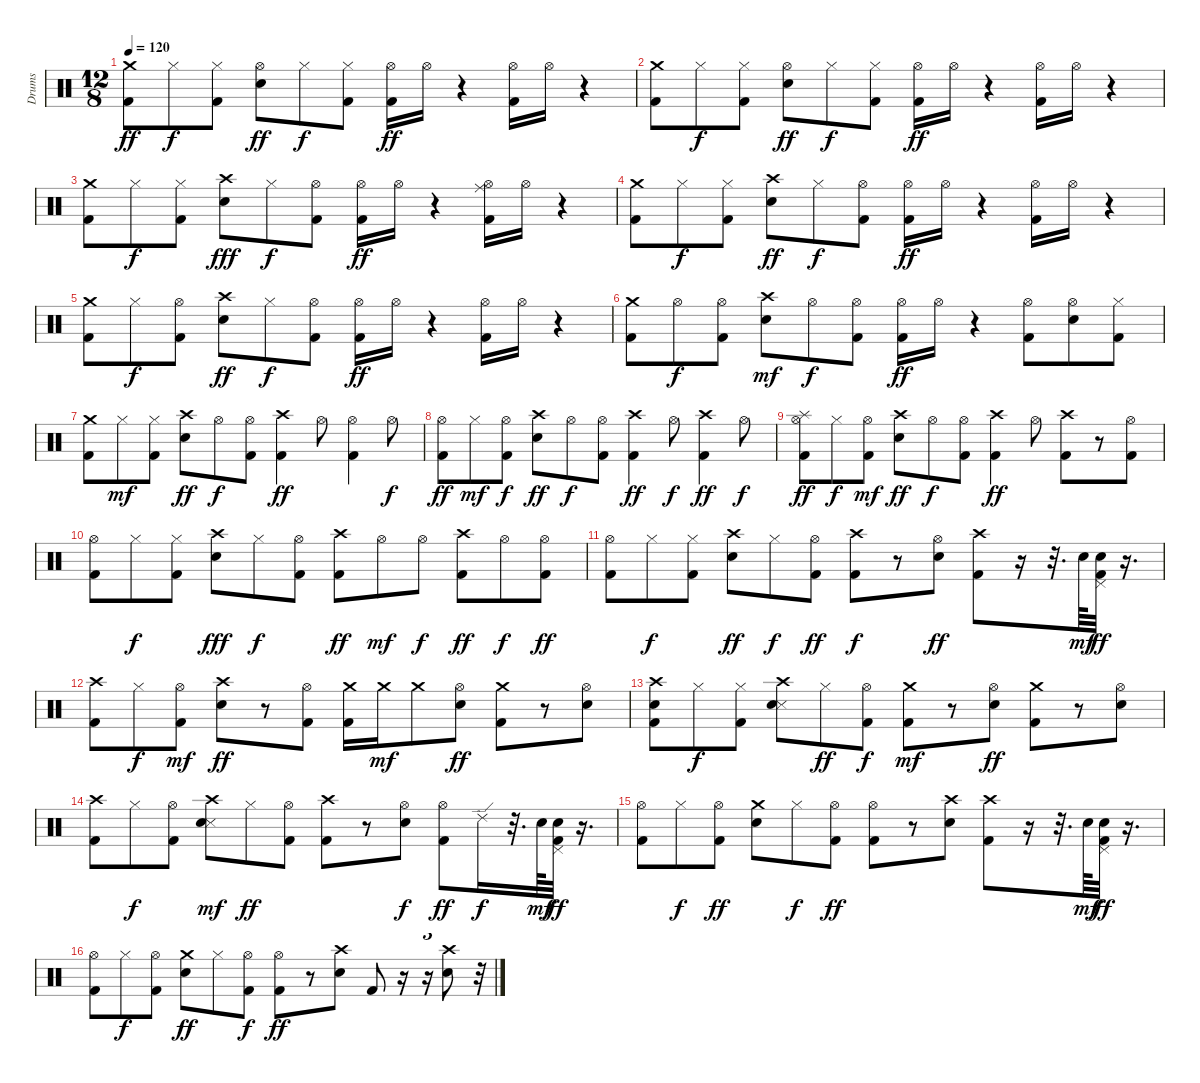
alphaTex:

\track ("Drums" "Drums") {instrument percussion}
\staff {score}
\articulation defaults
\ts (12 8)
\tempo 120
\clef neutral
\ks c
("Crash medium (hit)" "Kick (hit) 2").8{dy ff} "Hi-Hat (closed)".8{dy f} ("Hi-Hat (closed)" "Kick (hit) 2").8 ("Hi-Hat (open)" "Snare (hit) 2").8{dy ff} "Hi-Hat (closed)".8{dy f} ("Hi-Hat (closed)" "Kick (hit) 2").8 ("Hi-Hat (open)" "Kick (hit) 2").16{dy ff} "Hi-Hat (open)".16 r.4 ("Hi-Hat (open)" "Kick (hit) 2").16 "Hi-Hat (open)".16 r.4 |
("Crash medium (hit)" "Kick (hit) 2").8 "Hi-Hat (closed)".8{dy f} ("Hi-Hat (closed)" "Kick (hit) 2").8 ("Hi-Hat (open)" "Snare (hit) 2").8{dy ff} "Hi-Hat (closed)".8{dy f} ("Hi-Hat (closed)" "Kick (hit) 2").8 ("Hi-Hat (open)" "Kick (hit) 2").16{dy ff} "Hi-Hat (open)".16 r.4 ("Hi-Hat (open)" "Kick (hit) 2").16 "Hi-Hat (open)".16 r.4 |
("Crash medium (hit)" "Kick (hit) 2").8 "Hi-Hat (closed)".8{dy f} ("Hi-Hat (closed)" "Kick (hit) 2").8 ("Crash high (hit)" "Snare (hit) 2").8{dy fff} "Hi-Hat (closed)".8{dy f} ("Hi-Hat (open)" "Kick (hit) 2").8 ("Hi-Hat (open)" "Kick (hit) 2").16{dy ff} "Hi-Hat (open)".16 r.4 ("Ride (middle)" "Hi-Hat (open)" "Kick (hit) 2").16 "Hi-Hat (open)".16 r.4 |
("Crash medium (hit)" "Kick (hit) 2").8 "Hi-Hat (closed)".8{dy f} ("Hi-Hat (closed)" "Kick (hit) 2").8 ("Crash high (hit)" "Snare (hit) 2").8{dy ff} "Hi-Hat (closed)".8{dy f} ("Hi-Hat (open)" "Kick (hit) 2").8 ("Hi-Hat (open)" "Kick (hit) 2").16{dy ff} "Hi-Hat (open)".16 r.4 ("Hi-Hat (open)" "Kick (hit) 2").16 "Hi-Hat (open)".16 r.4 |
("Crash medium (hit)" "Kick (hit) 2").8 "Hi-Hat (closed)".8{dy f} ("Hi-Hat (open)" "Kick (hit) 2").8 ("Crash high (hit)" "Snare (hit) 2").8{dy ff} "Hi-Hat (closed)".8{dy f} ("Hi-Hat (open)" "Kick (hit) 2").8 ("Hi-Hat (open)" "Kick (hit) 2").16{dy ff} "Hi-Hat (open)".16 r.4 ("Hi-Hat (open)" "Kick (hit) 2").16 "Hi-Hat (open)".16 r.4 |
("Crash medium (hit)" "Kick (hit) 2").8 "Hi-Hat (open)".8{dy f} ("Hi-Hat (open)" "Kick (hit) 2").8 ("Crash high (hit)" "Snare (hit) 2").8{dy mf} "Hi-Hat (open)".8{dy f} ("Hi-Hat (open)" "Kick (hit) 2").8 ("Hi-Hat (open)" "Kick (hit) 2").16{dy ff} "Hi-Hat (open)".16 r.4 ("Hi-Hat (open)" "Kick (hit) 2").8 ("Hi-Hat (open)" "Snare (hit) 2").8 ("Hi-Hat (closed)" "Kick (hit) 2").8 |
("Crash medium (hit)" "Kick (hit) 2").8 "Hi-Hat (closed)".8{dy mf} ("Hi-Hat (closed)" "Kick (hit) 2").8 ("Crash high (hit)" "Snare (hit) 2").8{dy ff} "Hi-Hat (open)".8{dy f} ("Hi-Hat (open)" "Kick (hit) 2").8 ("Crash high (hit)" "Kick (hit) 2").4{dy ff} "Hi-Hat (open)".8 ("Hi-Hat (open)" "Kick (hit) 2").4 "Hi-Hat (open)".8{dy f} |
("Hi-Hat (open)" "Kick (hit) 2").8{dy ff} "Hi-Hat (closed)".8{dy mf} ("Hi-Hat (open)" "Kick (hit) 2").8{dy f} ("Crash high (hit)" "Snare (hit) 2").8{dy ff} "Hi-Hat (open)".8{dy f} ("Hi-Hat (open)" "Kick (hit) 2").8 ("Crash high (hit)" "Kick (hit) 2").4{dy ff} "Hi-Hat (open)".8{dy f} ("Crash high (hit)" "Kick (hit) 2").4{dy ff} "Hi-Hat (open)".8{dy f} |
("Splash (hit)" "Hi-Hat (open)" "Kick (hit) 2").8{dy ff} "Hi-Hat (closed)".8{dy f} ("Hi-Hat (open)" "Kick (hit) 2").8{dy mf} ("Crash high (hit)" "Snare (hit) 2").8{dy ff} "Hi-Hat (open)".8{dy f} ("Hi-Hat (open)" "Kick (hit) 2").8 ("Crash high (hit)" "Kick (hit) 2").4{dy ff} "Hi-Hat (open)".8 ("Crash high (hit)" "Kick (hit) 2").8 r.8 ("Hi-Hat (open)" "Kick (hit) 2").8 |
("Hi-Hat (open)" "Kick (hit) 2").8 "Hi-Hat (closed)".8{dy f} ("Hi-Hat (closed)" "Kick (hit) 2").8 ("Crash high (hit)" "Snare (hit) 2").8{dy fff} "Hi-Hat (closed)".8{dy f} ("Hi-Hat (open)" "Kick (hit) 2").8 ("Crash high (hit)" "Kick (hit) 2").8{dy ff} "Hi-Hat (open)".8{dy mf} "Hi-Hat (open)".8{dy f} ("Crash high (hit)" "Kick (hit) 2").8{dy ff} "Hi-Hat (open)".8{dy f} ("Hi-Hat (open)" "Kick (hit) 2").8{dy ff} |
("Hi-Hat (open)" "Kick (hit) 2").8 "Hi-Hat (closed)".8{dy f} ("Hi-Hat (closed)" "Kick (hit) 2").8 ("Crash high (hit)" "Snare (hit) 2").8{dy ff} "Hi-Hat (closed)".8{dy f} ("Hi-Hat (open)" "Kick (hit) 2").8{dy ff} ("Crash high (hit)" "Kick (hit) 2").8{dy f} r.8 ("Hi-Hat (open)" "Snare (hit) 2").8{dy ff} ("Crash high (hit)" "Kick (hit) 2").8 r.16 r.32{d} "Snare (hit) 2".64{dy mf} ("Pedal Hi-Hat (hit)" "Snare (hit) 2" "Kick (hit) 2").32{dy ff} r.16{d} |
("Crash high (hit)" "Kick (hit) 2").8 "Hi-Hat (closed)".8{dy f} ("Hi-Hat (open)" "Kick (hit) 2").8{dy mf} ("Crash high (hit)" "Snare (hit) 2").8{dy ff} r.8 ("Hi-Hat (open)" "Kick (hit) 2").8 ("Crash medium (hit)" "Kick (hit) 2").16 "Crash medium (hit)".16{dy mf} "Crash medium (hit)".8 ("Hi-Hat (open)" "Snare (hit) 2").8{dy ff} ("Crash medium (hit)" "Kick (hit) 2").8 r.8 ("Hi-Hat (open)" "Snare (hit) 2").8 |
("Crash high (hit)" "Snare (hit) 2" "Kick (hit) 2").8 "Hi-Hat (closed)".8{dy f} ("Hi-Hat (closed)" "Kick (hit) 2").8 ("Crash high (hit)" "Snare (side stick) 3" "Snare (hit) 2").8 "Hi-Hat (closed)".8{dy ff} ("Hi-Hat (open)" "Kick (hit) 2").8{dy f} ("Crash medium (hit)" "Kick (hit) 2").8{dy mf} r.8 ("Hi-Hat (open)" "Snare (hit) 2").8{dy ff} ("Crash medium (hit)" "Kick (hit) 2").8 r.8 ("Hi-Hat (open)" "Snare (hit) 2").8 |
("Crash high (hit)" "Kick (hit) 2").8 "Hi-Hat (closed)".8{dy f} ("Hi-Hat (open)" "Kick (hit) 2").8 ("Crash high (hit)" "Snare (side stick) 3" "Snare (hit) 2").8{dy mf} "Hi-Hat (closed)".8{dy ff} ("Hi-Hat (open)" "Kick (hit) 2").8 ("Crash high (hit)" "Kick (hit) 2").8 r.8 ("Hi-Hat (open)" "Snare (hit) 2").8{dy f} ("Hi-Hat (open)" "Kick (hit) 2").8{dy ff} "Ride (edge) 2".16{dy f} r.32{d} "Snare (hit) 2".64{dy mf} ("Pedal Hi-Hat (hit)" "Snare (hit) 2" "Kick (hit) 2").32{dy ff} r.16{d} |
("Hi-Hat (open)" "Kick (hit) 2").8 "Hi-Hat (closed)".8{dy f} ("Hi-Hat (open)" "Kick (hit) 2").8{dy ff} ("Crash medium (hit)" "Snare (hit) 2").8 "Hi-Hat (closed)".8{dy f} ("Hi-Hat (open)" "Kick (hit) 2").8{dy ff} ("Hi-Hat (open)" "Kick (hit) 2").8 r.8 ("Crash high (hit)" "Snare (hit) 2").8 ("Crash high (hit)" "Kick (hit) 2").8 r.16 r.32{d} "Snare (hit) 2".64{dy mf} ("Pedal Hi-Hat (hit)" "Snare (hit) 2" "Kick (hit) 2").32{dy ff} r.16{d} |
("Hi-Hat (open)" "Kick (hit) 2").8 "Hi-Hat (closed)".8{dy f} ("Hi-Hat (open)" "Kick (hit) 2").8 ("Crash medium (hit)" "Snare (hit) 2").8{dy ff} "Hi-Hat (closed)".8 ("Hi-Hat (open)" "Kick (hit) 2").8{dy f} ("Hi-Hat (open)" "Kick (hit) 2").8{dy ff} r.8 ("Crash high (hit)" "Snare (hit) 2").8 "Kick (hit) 2".8 r.16 r.16{tu (3 2)} ("Crash high (hit)" "Snare (hit) 2").8 r.32{tu (3 2)}
